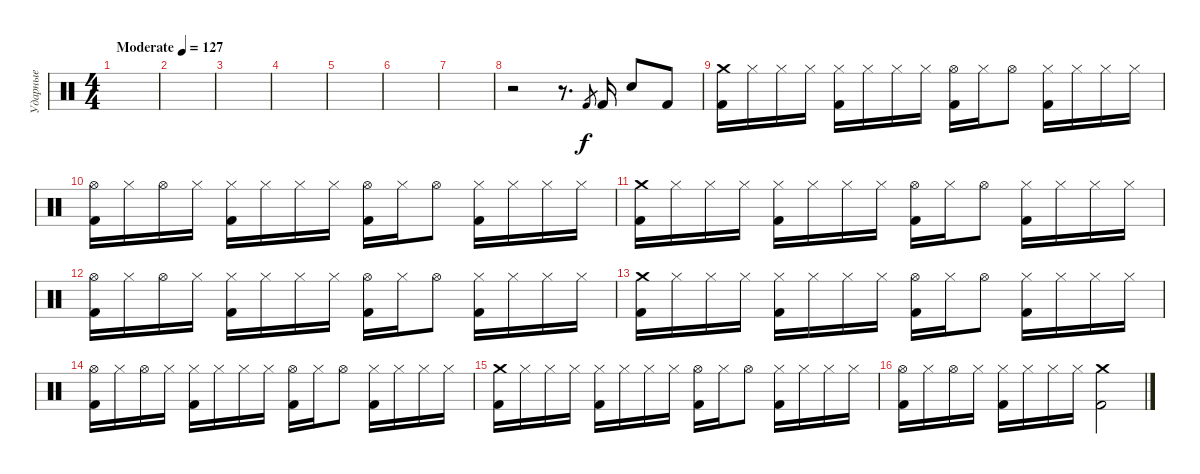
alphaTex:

\track ("Ударные" "Ударные") {instrument percussion}
\staff {score}
\articulation defaults
\ts (4 4)
\tempo (127 "Moderate")
\clef neutral
\ks c
|
|
|
|
|
|
|
r.2 r.8{d} "Kick (hit) 2".8{gr} "Kick (hit) 2".16 "Snare (hit) 2".8 "Kick (hit) 2".8 |
("Crash medium (hit)" "Kick (hit) 2").16 "Hi-Hat (closed)".16 "Hi-Hat (closed)".16 "Hi-Hat (closed)".16 ("Hi-Hat (closed)" "Kick (hit) 2").16 "Hi-Hat (closed)".16 "Hi-Hat (closed)".16 "Hi-Hat (closed)".16 ("Hi-Hat (open)" "Kick (hit) 2").16 "Hi-Hat (closed)".16 "Hi-Hat (open)".8 ("Hi-Hat (closed)" "Kick (hit) 2").16 "Hi-Hat (closed)".16 "Hi-Hat (closed)".16 "Hi-Hat (closed)".16 |
("Hi-Hat (open)" "Kick (hit) 2").16 "Hi-Hat (closed)".16 "Hi-Hat (open)".16 "Hi-Hat (closed)".16 ("Hi-Hat (closed)" "Kick (hit) 2").16 "Hi-Hat (closed)".16 "Hi-Hat (closed)".16 "Hi-Hat (closed)".16 ("Hi-Hat (open)" "Kick (hit) 2").16 "Hi-Hat (closed)".16 "Hi-Hat (open)".8 ("Hi-Hat (closed)" "Kick (hit) 2").16 "Hi-Hat (closed)".16 "Hi-Hat (closed)".16 "Hi-Hat (closed)".16 |
("Crash medium (hit)" "Kick (hit) 2").16 "Hi-Hat (closed)".16 "Hi-Hat (closed)".16 "Hi-Hat (closed)".16 ("Hi-Hat (closed)" "Kick (hit) 2").16 "Hi-Hat (closed)".16 "Hi-Hat (closed)".16 "Hi-Hat (closed)".16 ("Hi-Hat (open)" "Kick (hit) 2").16 "Hi-Hat (closed)".16 "Hi-Hat (open)".8 ("Hi-Hat (closed)" "Kick (hit) 2").16 "Hi-Hat (closed)".16 "Hi-Hat (closed)".16 "Hi-Hat (closed)".16 |
("Hi-Hat (open)" "Kick (hit) 2").16 "Hi-Hat (closed)".16 "Hi-Hat (open)".16 "Hi-Hat (closed)".16 ("Hi-Hat (closed)" "Kick (hit) 2").16 "Hi-Hat (closed)".16 "Hi-Hat (closed)".16 "Hi-Hat (closed)".16 ("Hi-Hat (open)" "Kick (hit) 2").16 "Hi-Hat (closed)".16 "Hi-Hat (open)".8 ("Hi-Hat (closed)" "Kick (hit) 2").16 "Hi-Hat (closed)".16 "Hi-Hat (closed)".16 "Hi-Hat (closed)".16 |
("Crash medium (hit)" "Kick (hit) 2").16 "Hi-Hat (closed)".16 "Hi-Hat (closed)".16 "Hi-Hat (closed)".16 ("Hi-Hat (closed)" "Kick (hit) 2").16 "Hi-Hat (closed)".16 "Hi-Hat (closed)".16 "Hi-Hat (closed)".16 ("Hi-Hat (open)" "Kick (hit) 2").16 "Hi-Hat (closed)".16 "Hi-Hat (open)".8 ("Hi-Hat (closed)" "Kick (hit) 2").16 "Hi-Hat (closed)".16 "Hi-Hat (closed)".16 "Hi-Hat (closed)".16 |
("Hi-Hat (open)" "Kick (hit) 2").16 "Hi-Hat (closed)".16 "Hi-Hat (open)".16 "Hi-Hat (closed)".16 ("Hi-Hat (closed)" "Kick (hit) 2").16 "Hi-Hat (closed)".16 "Hi-Hat (closed)".16 "Hi-Hat (closed)".16 ("Hi-Hat (open)" "Kick (hit) 2").16 "Hi-Hat (closed)".16 "Hi-Hat (open)".8 ("Hi-Hat (closed)" "Kick (hit) 2").16 "Hi-Hat (closed)".16 "Hi-Hat (closed)".16 "Hi-Hat (closed)".16 |
("Crash medium (hit)" "Kick (hit) 2").16 "Hi-Hat (closed)".16 "Hi-Hat (closed)".16 "Hi-Hat (closed)".16 ("Hi-Hat (closed)" "Kick (hit) 2").16 "Hi-Hat (closed)".16 "Hi-Hat (closed)".16 "Hi-Hat (closed)".16 ("Hi-Hat (open)" "Kick (hit) 2").16 "Hi-Hat (closed)".16 "Hi-Hat (open)".8 ("Hi-Hat (closed)" "Kick (hit) 2").16 "Hi-Hat (closed)".16 "Hi-Hat (closed)".16 "Hi-Hat (closed)".16 |
("Hi-Hat (open)" "Kick (hit) 2").16 "Hi-Hat (closed)".16 "Hi-Hat (open)".16 "Hi-Hat (closed)".16 ("Hi-Hat (closed)" "Kick (hit) 2").16 "Hi-Hat (closed)".16 "Hi-Hat (closed)".16 "Hi-Hat (closed)".16 ("Crash medium (hit)" "Kick (hit) 2").2
